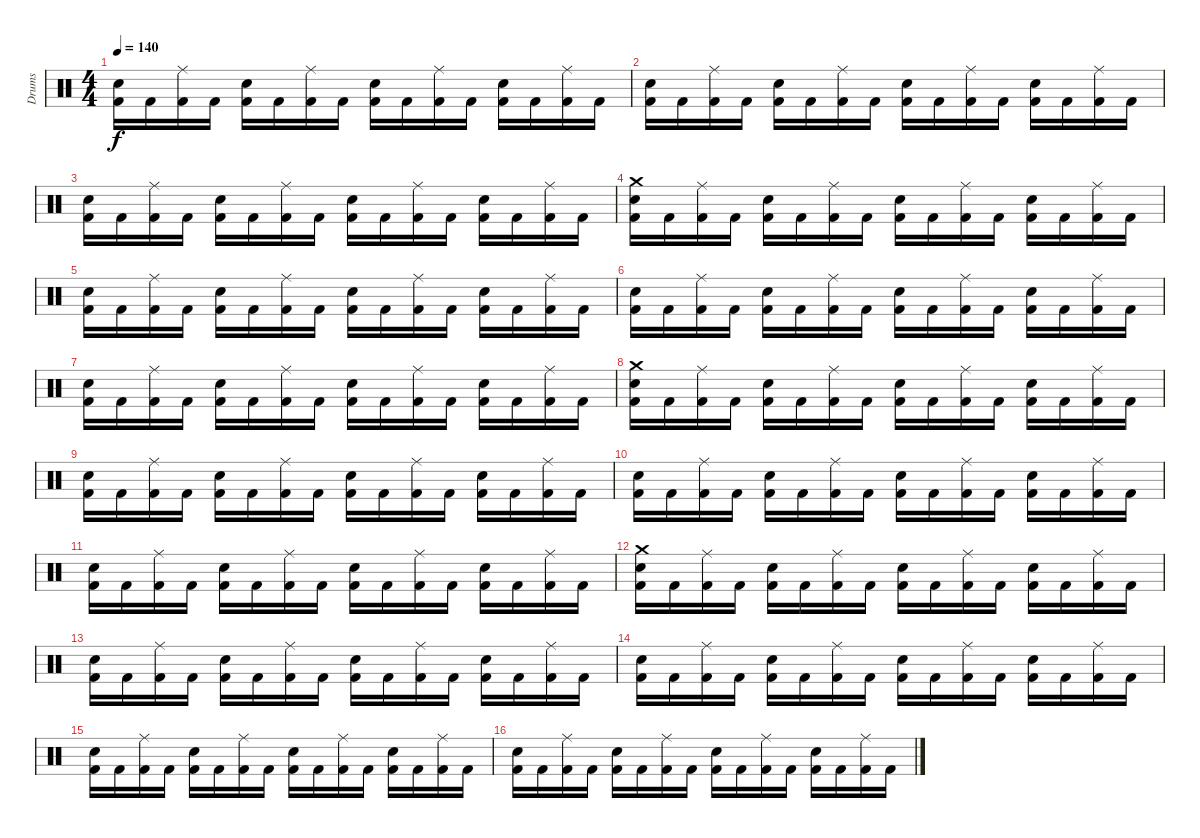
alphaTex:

\track ("Drums" "Drums") {instrument percussion}
\staff {score}
\articulation defaults
\ts (4 4)
\tempo 140
\clef neutral
\ks c
("Electric Snare (hit)" "Kick (hit) 2").16{dy f} "Kick (hit) 2".16 ("Ride (middle)" "Kick (hit) 2").16 "Kick (hit) 2".16 ("Electric Snare (hit)" "Kick (hit) 2").16 "Kick (hit) 2".16 ("Ride (middle)" "Kick (hit) 2").16 "Kick (hit) 2".16 ("Electric Snare (hit)" "Kick (hit) 2").16 "Kick (hit) 2".16 ("Ride (middle)" "Kick (hit) 2").16 "Kick (hit) 2".16 ("Electric Snare (hit)" "Kick (hit) 2").16 "Kick (hit) 2".16 ("Ride (middle)" "Kick (hit) 2").16 "Kick (hit) 2".16 |
("Electric Snare (hit)" "Kick (hit) 2").16 "Kick (hit) 2".16 ("Ride (middle)" "Kick (hit) 2").16 "Kick (hit) 2".16 ("Electric Snare (hit)" "Kick (hit) 2").16 "Kick (hit) 2".16 ("Ride (middle)" "Kick (hit) 2").16 "Kick (hit) 2".16 ("Electric Snare (hit)" "Kick (hit) 2").16 "Kick (hit) 2".16 ("Ride (middle)" "Kick (hit) 2").16 "Kick (hit) 2".16 ("Electric Snare (hit)" "Kick (hit) 2").16 "Kick (hit) 2".16 ("Ride (middle)" "Kick (hit) 2").16 "Kick (hit) 2".16 |
("Electric Snare (hit)" "Kick (hit) 2").16 "Kick (hit) 2".16 ("Ride (middle)" "Kick (hit) 2").16 "Kick (hit) 2".16 ("Electric Snare (hit)" "Kick (hit) 2").16 "Kick (hit) 2".16 ("Ride (middle)" "Kick (hit) 2").16 "Kick (hit) 2".16 ("Electric Snare (hit)" "Kick (hit) 2").16 "Kick (hit) 2".16 ("Ride (middle)" "Kick (hit) 2").16 "Kick (hit) 2".16 ("Electric Snare (hit)" "Kick (hit) 2").16 "Kick (hit) 2".16 ("Ride (middle)" "Kick (hit) 2").16 "Kick (hit) 2".16 |
("Crash medium (hit)" "Electric Snare (hit)" "Kick (hit) 2").16 "Kick (hit) 2".16 ("Ride (middle)" "Kick (hit) 2").16 "Kick (hit) 2".16 ("Electric Snare (hit)" "Kick (hit) 2").16 "Kick (hit) 2".16 ("Ride (middle)" "Kick (hit) 2").16 "Kick (hit) 2".16 ("Electric Snare (hit)" "Kick (hit) 2").16 "Kick (hit) 2".16 ("Ride (middle)" "Kick (hit) 2").16 "Kick (hit) 2".16 ("Electric Snare (hit)" "Kick (hit) 2").16 "Kick (hit) 2".16 ("Ride (middle)" "Kick (hit) 2").16 "Kick (hit) 2".16 |
("Electric Snare (hit)" "Kick (hit) 2").16 "Kick (hit) 2".16 ("Ride (middle)" "Kick (hit) 2").16 "Kick (hit) 2".16 ("Electric Snare (hit)" "Kick (hit) 2").16 "Kick (hit) 2".16 ("Ride (middle)" "Kick (hit) 2").16 "Kick (hit) 2".16 ("Electric Snare (hit)" "Kick (hit) 2").16 "Kick (hit) 2".16 ("Ride (middle)" "Kick (hit) 2").16 "Kick (hit) 2".16 ("Electric Snare (hit)" "Kick (hit) 2").16 "Kick (hit) 2".16 ("Ride (middle)" "Kick (hit) 2").16 "Kick (hit) 2".16 |
("Electric Snare (hit)" "Kick (hit) 2").16 "Kick (hit) 2".16 ("Ride (middle)" "Kick (hit) 2").16 "Kick (hit) 2".16 ("Electric Snare (hit)" "Kick (hit) 2").16 "Kick (hit) 2".16 ("Ride (middle)" "Kick (hit) 2").16 "Kick (hit) 2".16 ("Electric Snare (hit)" "Kick (hit) 2").16 "Kick (hit) 2".16 ("Ride (middle)" "Kick (hit) 2").16 "Kick (hit) 2".16 ("Electric Snare (hit)" "Kick (hit) 2").16 "Kick (hit) 2".16 ("Ride (middle)" "Kick (hit) 2").16 "Kick (hit) 2".16 |
("Electric Snare (hit)" "Kick (hit) 2").16 "Kick (hit) 2".16 ("Ride (middle)" "Kick (hit) 2").16 "Kick (hit) 2".16 ("Electric Snare (hit)" "Kick (hit) 2").16 "Kick (hit) 2".16 ("Ride (middle)" "Kick (hit) 2").16 "Kick (hit) 2".16 ("Electric Snare (hit)" "Kick (hit) 2").16 "Kick (hit) 2".16 ("Ride (middle)" "Kick (hit) 2").16 "Kick (hit) 2".16 ("Electric Snare (hit)" "Kick (hit) 2").16 "Kick (hit) 2".16 ("Ride (middle)" "Kick (hit) 2").16 "Kick (hit) 2".16 |
("Crash medium (hit)" "Electric Snare (hit)" "Kick (hit) 2").16 "Kick (hit) 2".16 ("Ride (middle)" "Kick (hit) 2").16 "Kick (hit) 2".16 ("Electric Snare (hit)" "Kick (hit) 2").16 "Kick (hit) 2".16 ("Ride (middle)" "Kick (hit) 2").16 "Kick (hit) 2".16 ("Electric Snare (hit)" "Kick (hit) 2").16 "Kick (hit) 2".16 ("Ride (middle)" "Kick (hit) 2").16 "Kick (hit) 2".16 ("Electric Snare (hit)" "Kick (hit) 2").16 "Kick (hit) 2".16 ("Ride (middle)" "Kick (hit) 2").16 "Kick (hit) 2".16 |
("Electric Snare (hit)" "Kick (hit) 2").16 "Kick (hit) 2".16 ("Ride (middle)" "Kick (hit) 2").16 "Kick (hit) 2".16 ("Electric Snare (hit)" "Kick (hit) 2").16 "Kick (hit) 2".16 ("Ride (middle)" "Kick (hit) 2").16 "Kick (hit) 2".16 ("Electric Snare (hit)" "Kick (hit) 2").16 "Kick (hit) 2".16 ("Ride (middle)" "Kick (hit) 2").16 "Kick (hit) 2".16 ("Electric Snare (hit)" "Kick (hit) 2").16 "Kick (hit) 2".16 ("Ride (middle)" "Kick (hit) 2").16 "Kick (hit) 2".16 |
("Electric Snare (hit)" "Kick (hit) 2").16 "Kick (hit) 2".16 ("Ride (middle)" "Kick (hit) 2").16 "Kick (hit) 2".16 ("Electric Snare (hit)" "Kick (hit) 2").16 "Kick (hit) 2".16 ("Ride (middle)" "Kick (hit) 2").16 "Kick (hit) 2".16 ("Electric Snare (hit)" "Kick (hit) 2").16 "Kick (hit) 2".16 ("Ride (middle)" "Kick (hit) 2").16 "Kick (hit) 2".16 ("Electric Snare (hit)" "Kick (hit) 2").16 "Kick (hit) 2".16 ("Ride (middle)" "Kick (hit) 2").16 "Kick (hit) 2".16 |
("Electric Snare (hit)" "Kick (hit) 2").16 "Kick (hit) 2".16 ("Ride (middle)" "Kick (hit) 2").16 "Kick (hit) 2".16 ("Electric Snare (hit)" "Kick (hit) 2").16 "Kick (hit) 2".16 ("Ride (middle)" "Kick (hit) 2").16 "Kick (hit) 2".16 ("Electric Snare (hit)" "Kick (hit) 2").16 "Kick (hit) 2".16 ("Ride (middle)" "Kick (hit) 2").16 "Kick (hit) 2".16 ("Electric Snare (hit)" "Kick (hit) 2").16 "Kick (hit) 2".16 ("Ride (middle)" "Kick (hit) 2").16 "Kick (hit) 2".16 |
("Crash medium (hit)" "Electric Snare (hit)" "Kick (hit) 2").16 "Kick (hit) 2".16 ("Ride (middle)" "Kick (hit) 2").16 "Kick (hit) 2".16 ("Electric Snare (hit)" "Kick (hit) 2").16 "Kick (hit) 2".16 ("Ride (middle)" "Kick (hit) 2").16 "Kick (hit) 2".16 ("Electric Snare (hit)" "Kick (hit) 2").16 "Kick (hit) 2".16 ("Ride (middle)" "Kick (hit) 2").16 "Kick (hit) 2".16 ("Electric Snare (hit)" "Kick (hit) 2").16 "Kick (hit) 2".16 ("Ride (middle)" "Kick (hit) 2").16 "Kick (hit) 2".16 |
("Electric Snare (hit)" "Kick (hit) 2").16 "Kick (hit) 2".16 ("Ride (middle)" "Kick (hit) 2").16 "Kick (hit) 2".16 ("Electric Snare (hit)" "Kick (hit) 2").16 "Kick (hit) 2".16 ("Ride (middle)" "Kick (hit) 2").16 "Kick (hit) 2".16 ("Electric Snare (hit)" "Kick (hit) 2").16 "Kick (hit) 2".16 ("Ride (middle)" "Kick (hit) 2").16 "Kick (hit) 2".16 ("Electric Snare (hit)" "Kick (hit) 2").16 "Kick (hit) 2".16 ("Ride (middle)" "Kick (hit) 2").16 "Kick (hit) 2".16 |
("Electric Snare (hit)" "Kick (hit) 2").16 "Kick (hit) 2".16 ("Ride (middle)" "Kick (hit) 2").16 "Kick (hit) 2".16 ("Electric Snare (hit)" "Kick (hit) 2").16 "Kick (hit) 2".16 ("Ride (middle)" "Kick (hit) 2").16 "Kick (hit) 2".16 ("Electric Snare (hit)" "Kick (hit) 2").16 "Kick (hit) 2".16 ("Ride (middle)" "Kick (hit) 2").16 "Kick (hit) 2".16 ("Electric Snare (hit)" "Kick (hit) 2").16 "Kick (hit) 2".16 ("Ride (middle)" "Kick (hit) 2").16 "Kick (hit) 2".16 |
("Electric Snare (hit)" "Kick (hit) 2").16 "Kick (hit) 2".16 ("Ride (middle)" "Kick (hit) 2").16 "Kick (hit) 2".16 ("Electric Snare (hit)" "Kick (hit) 2").16 "Kick (hit) 2".16 ("Ride (middle)" "Kick (hit) 2").16 "Kick (hit) 2".16 ("Electric Snare (hit)" "Kick (hit) 2").16 "Kick (hit) 2".16 ("Ride (middle)" "Kick (hit) 2").16 "Kick (hit) 2".16 ("Electric Snare (hit)" "Kick (hit) 2").16 "Kick (hit) 2".16 ("Ride (middle)" "Kick (hit) 2").16 "Kick (hit) 2".16 |
("Electric Snare (hit)" "Kick (hit) 2").16 "Kick (hit) 2".16 ("Ride (middle)" "Kick (hit) 2").16 "Kick (hit) 2".16 ("Electric Snare (hit)" "Kick (hit) 2").16 "Kick (hit) 2".16 ("Ride (middle)" "Kick (hit) 2").16 "Kick (hit) 2".16 ("Electric Snare (hit)" "Kick (hit) 2").16 "Kick (hit) 2".16 ("Ride (middle)" "Kick (hit) 2").16 "Kick (hit) 2".16 ("Electric Snare (hit)" "Kick (hit) 2").16 "Kick (hit) 2".16 ("Ride (middle)" "Kick (hit) 2").16 "Kick (hit) 2".16
